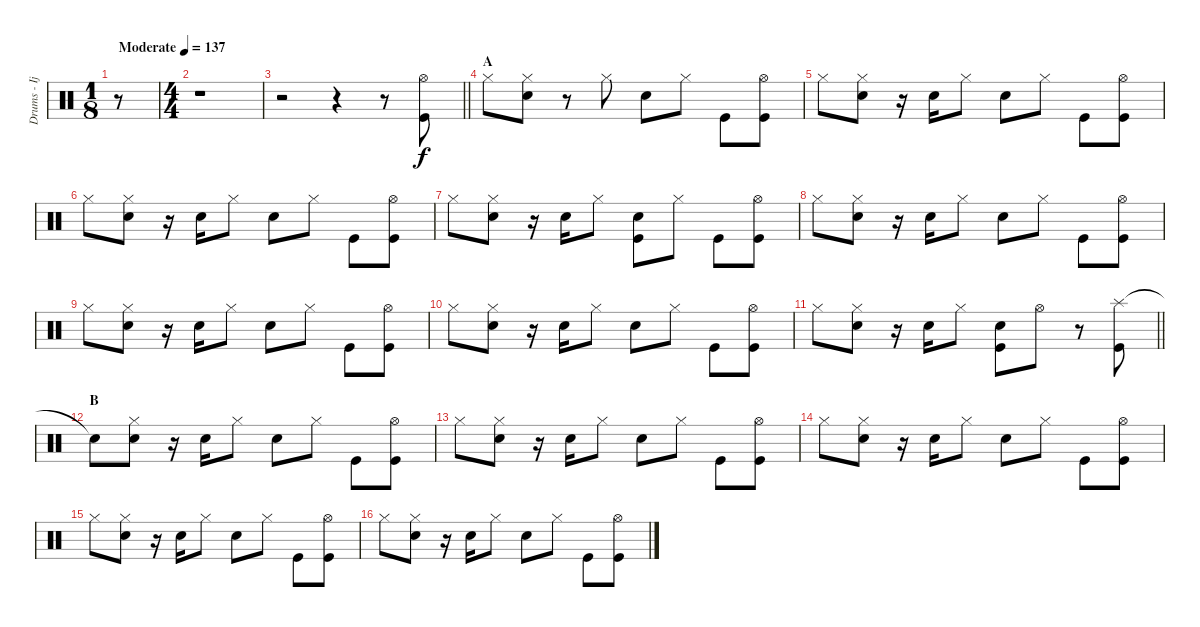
\track ("Drums - Ijichi" "Drums - Ij") {instrument percussion}
\staff {score}
\articulation defaults
\ts (1 8)
\tempo (137 "Moderate")
\clef neutral
\ks c
r.8{dy f} |
\ts (4 4)
r.1 |
\barLineRight lightlight
r.2 r.4 r.8 ("Hi-Hat (open)" "Kick (hit)").8 |
\section ("" "A")
"Hi-Hat (closed)".8 ("Hi-Hat (closed)" "Electric Snare (hit)").8 r.8 "Hi-Hat (closed)".8 "Electric Snare (hit)".8 "Hi-Hat (closed)".8 "Kick (hit)".8 ("Hi-Hat (open)" "Kick (hit)").8 |
"Hi-Hat (closed)".8 ("Hi-Hat (closed)" "Electric Snare (hit)").8 r.16 "Electric Snare (hit)".16 "Hi-Hat (closed)".8 "Electric Snare (hit)".8 "Hi-Hat (closed)".8 "Kick (hit)".8 ("Hi-Hat (open)" "Kick (hit)").8 |
"Hi-Hat (closed)".8 ("Hi-Hat (closed)" "Electric Snare (hit)").8 r.16 "Electric Snare (hit)".16 "Hi-Hat (closed)".8 "Electric Snare (hit)".8 "Hi-Hat (closed)".8 "Kick (hit)".8 ("Hi-Hat (open)" "Kick (hit)").8 |
"Hi-Hat (closed)".8 ("Hi-Hat (closed)" "Electric Snare (hit)").8 r.16 "Electric Snare (hit)".16 "Hi-Hat (closed)".8 ("Electric Snare (hit)" "Kick (hit)").8 "Hi-Hat (closed)".8 "Kick (hit)".8 ("Hi-Hat (open)" "Kick (hit)").8 |
"Hi-Hat (closed)".8 ("Hi-Hat (closed)" "Electric Snare (hit)").8 r.16 "Electric Snare (hit)".16 "Hi-Hat (closed)".8 "Electric Snare (hit)".8 "Hi-Hat (closed)".8 "Kick (hit)".8 ("Hi-Hat (open)" "Kick (hit)").8 |
"Hi-Hat (closed)".8 ("Hi-Hat (closed)" "Electric Snare (hit)").8 r.16 "Electric Snare (hit)".16 "Hi-Hat (closed)".8 "Electric Snare (hit)".8 "Hi-Hat (closed)".8 "Kick (hit)".8 ("Hi-Hat (open)" "Kick (hit)").8 |
"Hi-Hat (closed)".8 ("Hi-Hat (closed)" "Electric Snare (hit)").8 r.16 "Electric Snare (hit)".16 "Hi-Hat (closed)".8 "Electric Snare (hit)".8 "Hi-Hat (closed)".8 "Kick (hit)".8 ("Hi-Hat (open)" "Kick (hit)").8 |
\barLineRight lightlight "Hi-Hat (closed)".8
("Hi-Hat (closed)" "Electric Snare (hit)").8 r.16 "Electric Snare (hit)".16 "Hi-Hat (closed)".8 ("Electric Snare (hit)" "Kick (hit)").8 "Hi-Hat (open)".8 r.8 ("Splash (hit)" "Kick (hit)").8 |
\section ("" "B")
"Snare (hit)"{t}.8 ("Hi-Hat (closed)" "Electric Snare (hit)").8 r.16 "Electric Snare (hit)".16 "Hi-Hat (closed)".8 "Electric Snare (hit)".8 "Hi-Hat (closed)".8 "Kick (hit)".8 ("Hi-Hat (open)" "Kick (hit)").8 |
"Hi-Hat (closed)".8 ("Hi-Hat (closed)" "Electric Snare (hit)").8 r.16 "Electric Snare (hit)".16 "Hi-Hat (closed)".8 "Electric Snare (hit)".8 "Hi-Hat (closed)".8 "Kick (hit)".8 ("Hi-Hat (open)" "Kick (hit)").8 |
"Hi-Hat (closed)".8 ("Hi-Hat (closed)" "Electric Snare (hit)").8 r.16 "Electric Snare (hit)".16 "Hi-Hat (closed)".8 "Electric Snare (hit)".8 "Hi-Hat (closed)".8 "Kick (hit)".8 ("Hi-Hat (open)" "Kick (hit)").8 |
"Hi-Hat (closed)".8 ("Hi-Hat (closed)" "Electric Snare (hit)").8 r.16 "Electric Snare (hit)".16 "Hi-Hat (closed)".8 "Electric Snare (hit)".8 "Hi-Hat (closed)".8 "Kick (hit)".8 ("Hi-Hat (open)" "Kick (hit)").8 |
"Hi-Hat (closed)".8 ("Hi-Hat (closed)" "Electric Snare (hit)").8 r.16 "Electric Snare (hit)".16 "Hi-Hat (closed)".8 "Electric Snare (hit)".8 "Hi-Hat (closed)".8 "Kick (hit)".8 ("Hi-Hat (open)" "Kick (hit)").8
